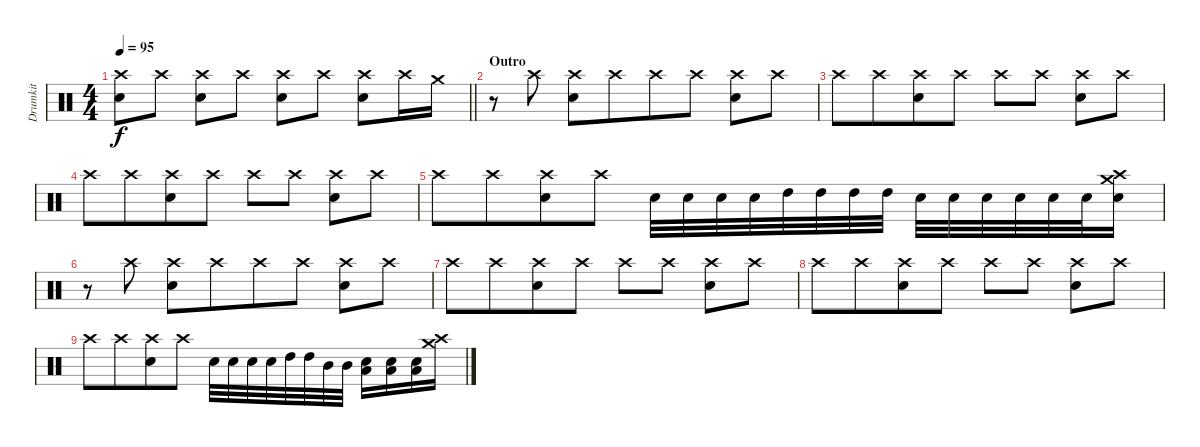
\track ("Drumkit" "Drumkit") {instrument percussion}
\staff {score}
\articulation defaults
\ts (4 4)
\tempo 95
\clef neutral
\barLineRight lightlight
\ks c
("Crash high (hit)" "Electric Snare (hit)").8{dy f} "Crash high (hit)".8 ("Crash high (hit)" "Electric Snare (hit)").8{beam merge} "Crash high (hit)".8 ("Crash high (hit)" "Electric Snare (hit)").8{beam merge} "Crash high (hit)".8 ("Crash high (hit)" "Electric Snare (hit)").8 "Crash high (hit)".16{beam merge} "Crash medium (hit)".16 |
\section ("" "Outro")
r.8 "Crash high (hit)".8 ("Crash high (hit)" "Electric Snare (hit)").8 "Crash high (hit)".8{beam merge} "Crash high (hit)".8 "Crash high (hit)".8 ("Crash high (hit)" "Electric Snare (hit)").8 "Crash high (hit)".8 |
"Crash high (hit)".8{beam merge} "Crash high (hit)".8{beam merge} ("Crash high (hit)" "Electric Snare (hit)").8 "Crash high (hit)".8 "Crash high (hit)".8{beam merge} "Crash high (hit)".8 ("Crash high (hit)" "Electric Snare (hit)").8 "Crash high (hit)".8 |
"Crash high (hit)".8{beam merge} "Crash high (hit)".8{beam merge} ("Crash high (hit)" "Electric Snare (hit)").8 "Crash high (hit)".8 "Crash high (hit)".8{beam merge} "Crash high (hit)".8 ("Crash high (hit)" "Electric Snare (hit)").8 "Crash high (hit)".8 |
"Crash high (hit)".8{beam merge} "Crash high (hit)".8{beam merge} ("Crash high (hit)" "Electric Snare (hit)").8 "Crash high (hit)".8 "Electric Snare (hit)".32{beam merge} "Electric Snare (hit)".32 "Electric Snare (hit)".32 "Electric Snare (hit)".32 "High Tom (hit)".32 "High Tom (hit)".32 "High Tom (hit)".32 "High Tom (hit)".32 "Electric Snare (hit)".32 "Electric Snare (hit)".32 "Electric Snare (hit)".32 "Electric Snare (hit)".32 "Electric Snare (hit)".32 "Electric Snare (hit)".32 ("Crash medium (hit)" "Crash high (hit)" "Electric Snare (hit)").16 |
r.8 "Crash high (hit)".8 ("Crash high (hit)" "Electric Snare (hit)").8 "Crash high (hit)".8{beam merge} "Crash high (hit)".8 "Crash high (hit)".8 ("Crash high (hit)" "Electric Snare (hit)").8 "Crash high (hit)".8 |
"Crash high (hit)".8{beam merge} "Crash high (hit)".8{beam merge} ("Crash high (hit)" "Electric Snare (hit)").8 "Crash high (hit)".8 "Crash high (hit)".8{beam merge} "Crash high (hit)".8 ("Crash high (hit)" "Electric Snare (hit)").8 "Crash high (hit)".8 |
"Crash high (hit)".8{beam merge} "Crash high (hit)".8{beam merge} ("Crash high (hit)" "Electric Snare (hit)").8 "Crash high (hit)".8 "Crash high (hit)".8{beam merge} "Crash high (hit)".8 ("Crash high (hit)" "Electric Snare (hit)").8 "Crash high (hit)".8 |
"Crash high (hit)".8{beam merge} "Crash high (hit)".8{beam merge} ("Crash high (hit)" "Electric Snare (hit)").8 "Crash high (hit)".8 "Electric Snare (hit)".32{beam merge} "Electric Snare (hit)".32 "Electric Snare (hit)".32 "Electric Snare (hit)".32 "High Tom (hit)".32 "High Tom (hit)".32 "Mid Tom (hit)".32 "Mid Tom (hit)".32 ("Low Floor Tom (hit)" "Electric Snare (hit)").16 ("Low Floor Tom (hit)" "Electric Snare (hit)").16 ("Low Floor Tom (hit)" "Electric Snare (hit)").16 ("Crash high (hit)" "Crash medium (hit)").16
